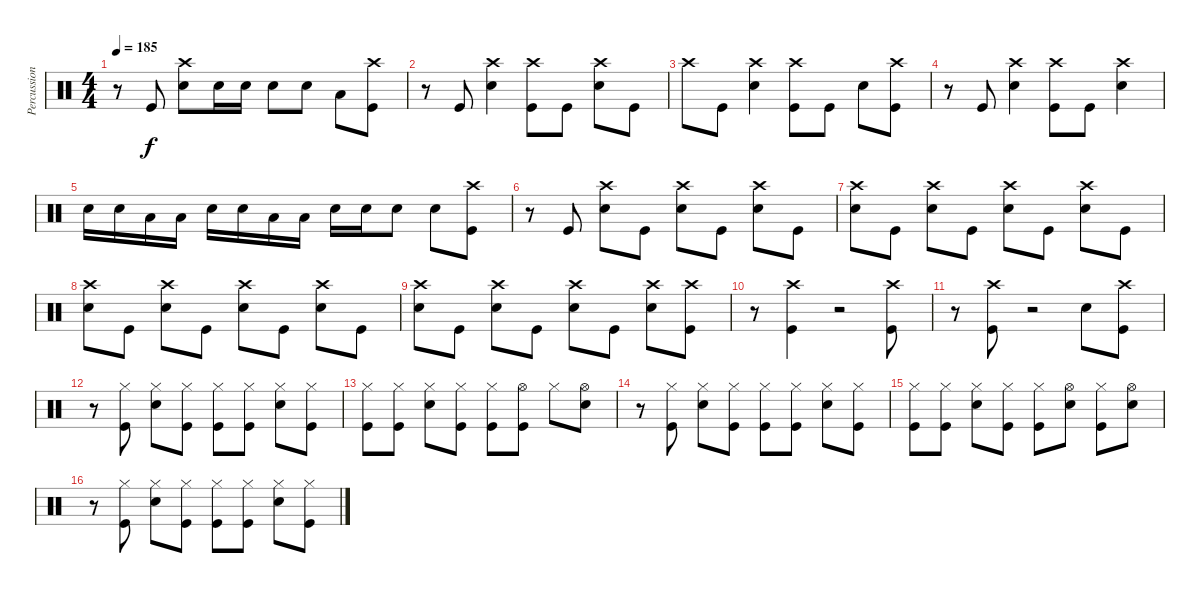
\track ("Percussion" "Percussion") {instrument percussion}
\staff {score}
\articulation defaults
\ts (4 4)
\tempo 185
\clef neutral
\ks c
r.8{dy f} "Kick (hit)".8 ("Crash high (hit)" "Snare (hit) 2").8 "Snare (hit) 2".16 "Snare (hit) 2".16 "Snare (hit) 2".8 "Snare (hit) 2".8 "Low Tom (hit)".8 ("Crash high (hit)" "Kick (hit)").8 |
r.8 "Kick (hit)".8 ("Crash high (hit)" "Snare (hit) 2").4 ("Crash high (hit)" "Kick (hit)").8 "Kick (hit)".8 ("Crash high (hit)" "Snare (hit) 2").8 "Kick (hit)".8 |
"Crash high (hit)".8 "Kick (hit)".8 ("Crash high (hit)" "Snare (hit) 2").4 ("Crash high (hit)" "Kick (hit)").8 "Kick (hit)".8 "Snare (hit) 2".8 ("Crash high (hit)" "Kick (hit)").8 |
r.8 "Kick (hit)".8 ("Crash high (hit)" "Snare (hit) 2").4 ("Crash high (hit)" "Kick (hit)").8 "Kick (hit)".8 ("Crash high (hit)" "Snare (hit) 2").4 |
"Snare (hit) 2".16 "Snare (hit) 2".16 "Low Tom (hit)".16 "Low Tom (hit)".16 "Snare (hit) 2".16 "Snare (hit) 2".16 "Low Tom (hit)".16 "Low Tom (hit)".16 "Snare (hit) 2".16 "Snare (hit) 2".16 "Snare (hit) 2".8 "Snare (hit) 2".8 ("Crash high (hit)" "Kick (hit)").8 |
r.8 "Kick (hit)".8 ("Crash high (hit)" "Snare (hit) 2").8 "Kick (hit)".8 ("Crash high (hit)" "Snare (hit) 2").8 "Kick (hit)".8 ("Crash high (hit)" "Snare (hit) 2").8 "Kick (hit)".8 |
("Crash high (hit)" "Snare (hit) 2").8 "Kick (hit)".8 ("Crash high (hit)" "Snare (hit) 2").8 "Kick (hit)".8 ("Crash high (hit)" "Snare (hit) 2").8 "Kick (hit)".8 ("Crash high (hit)" "Snare (hit) 2").8 "Kick (hit)".8 |
("Crash high (hit)" "Snare (hit) 2").8 "Kick (hit)".8 ("Crash high (hit)" "Snare (hit) 2").8 "Kick (hit)".8 ("Crash high (hit)" "Snare (hit) 2").8 "Kick (hit)".8 ("Crash high (hit)" "Snare (hit) 2").8 "Kick (hit)".8 |
("Crash high (hit)" "Snare (hit) 2").8 "Kick (hit)".8 ("Crash high (hit)" "Snare (hit) 2").8 "Kick (hit)".8 ("Crash high (hit)" "Snare (hit) 2").8 "Kick (hit)".8 ("Crash high (hit)" "Snare (hit) 2").8 ("Crash high (hit)" "Kick (hit)").8 |
r.8 ("Crash high (hit)" "Kick (hit)").4 r.2 ("Crash high (hit)" "Kick (hit)").8 |
r.8 ("Crash high (hit)" "Kick (hit)").8 r.2 "Snare (hit) 2".8 ("Crash high (hit)" "Kick (hit)").8 |
r.8 ("Hi-Hat (closed)" "Kick (hit)").8 ("Hi-Hat (closed)" "Snare (hit) 2").8 ("Hi-Hat (closed)" "Kick (hit)").8 ("Hi-Hat (closed)" "Kick (hit)").8 ("Hi-Hat (closed)" "Kick (hit)").8 ("Hi-Hat (closed)" "Snare (hit) 2").8 ("Hi-Hat (closed)" "Kick (hit)").8 |
("Hi-Hat (closed)" "Kick (hit)").8 ("Hi-Hat (closed)" "Kick (hit)").8 ("Hi-Hat (closed)" "Snare (hit) 2").8 ("Hi-Hat (closed)" "Kick (hit)").8 ("Hi-Hat (closed)" "Kick (hit)").8 ("Hi-Hat (open)" "Kick (hit)").8 "Hi-Hat (closed)".8 ("Hi-Hat (open)" "Snare (hit) 2").8 |
r.8 ("Hi-Hat (closed)" "Kick (hit)").8 ("Hi-Hat (closed)" "Snare (hit) 2").8 ("Hi-Hat (closed)" "Kick (hit)").8 ("Hi-Hat (closed)" "Kick (hit)").8 ("Hi-Hat (closed)" "Kick (hit)").8 ("Hi-Hat (closed)" "Snare (hit) 2").8 ("Hi-Hat (closed)" "Kick (hit)").8 |
("Hi-Hat (closed)" "Kick (hit)").8 ("Hi-Hat (closed)" "Kick (hit)").8 ("Hi-Hat (closed)" "Snare (hit) 2").8 ("Hi-Hat (closed)" "Kick (hit)").8 ("Hi-Hat (closed)" "Kick (hit)").8 ("Hi-Hat (open)" "Snare (hit) 2").8 ("Hi-Hat (closed)" "Kick (hit)").8 ("Hi-Hat (open)" "Snare (hit) 2").8 |
r.8 ("Hi-Hat (closed)" "Kick (hit)").8 ("Hi-Hat (closed)" "Snare (hit) 2").8 ("Hi-Hat (closed)" "Kick (hit)").8 ("Hi-Hat (closed)" "Kick (hit)").8 ("Hi-Hat (closed)" "Kick (hit)").8 ("Hi-Hat (closed)" "Snare (hit) 2").8 ("Hi-Hat (closed)" "Kick (hit)").8
